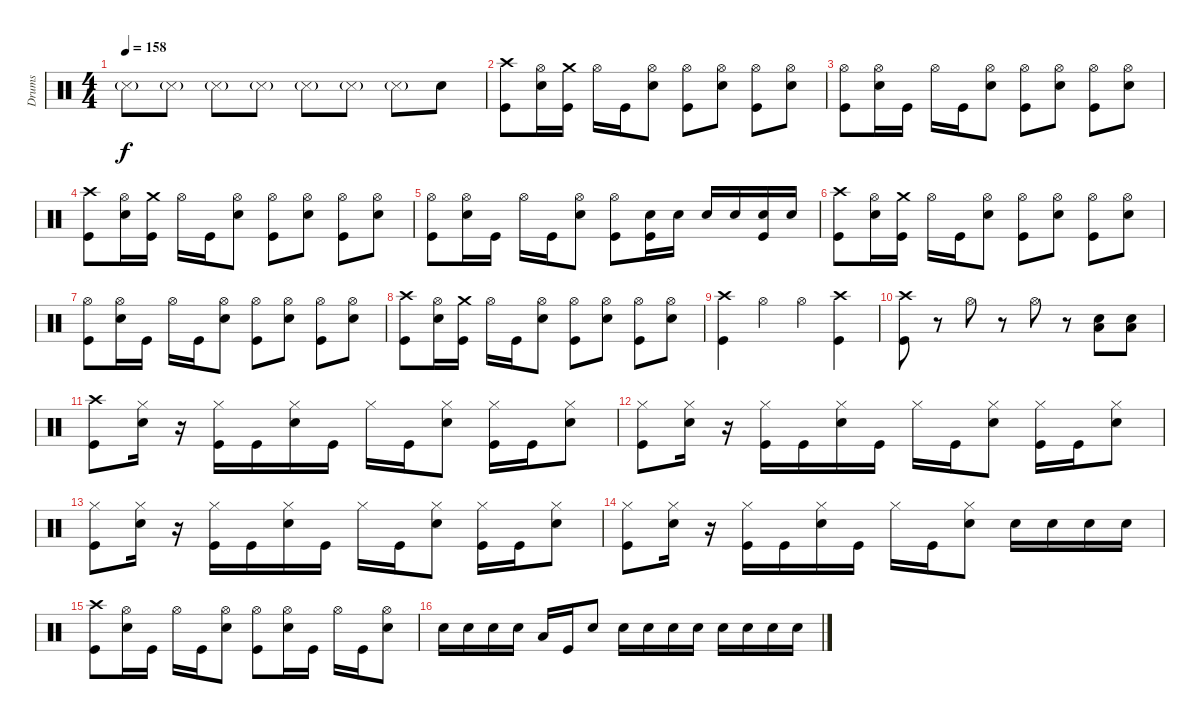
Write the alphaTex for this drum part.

\track ("Drums" "Drums") {instrument percussion}
\staff {score}
\articulation defaults
\ts (4 4)
\tempo 158
\clef neutral
\ks c "Snare (side stick) 3"{g}.8{dy f} "Snare (side stick) 3"{g}.8 "Snare (side stick) 3"{g}.8 "Snare (side stick) 3"{g}.8 "Snare (side stick) 3"{g}.8 "Snare (side stick) 3"{g}.8 "Snare (side stick) 3"{g}.8 "Snare (hit) 2".8
|
("Crash high (hit)" "Kick (hit)").8 ("Hi-Hat (open)" "Snare (hit) 2").16 ("Crash medium (hit)" "Kick (hit)").16 "Hi-Hat (open)".16 "Kick (hit)".16 ("Hi-Hat (open)" "Snare (hit) 2").8 ("Hi-Hat (open)" "Kick (hit)").8 ("Hi-Hat (open)" "Snare (hit) 2").8 ("Hi-Hat (open)" "Kick (hit)").8 ("Hi-Hat (open)" "Snare (hit) 2").8 |
("Hi-Hat (open)" "Kick (hit)").8 ("Hi-Hat (open)" "Snare (hit) 2").16 "Kick (hit)".16 "Hi-Hat (open)".16 "Kick (hit)".16 ("Hi-Hat (open)" "Snare (hit) 2").8 ("Hi-Hat (open)" "Kick (hit)").8 ("Hi-Hat (open)" "Snare (hit) 2").8 ("Hi-Hat (open)" "Kick (hit)").8 ("Hi-Hat (open)" "Snare (hit) 2").8 |
("Crash high (hit)" "Kick (hit)").8 ("Hi-Hat (open)" "Snare (hit) 2").16 ("Crash medium (hit)" "Kick (hit)").16 "Hi-Hat (open)".16 "Kick (hit)".16 ("Hi-Hat (open)" "Snare (hit) 2").8 ("Hi-Hat (open)" "Kick (hit)").8 ("Hi-Hat (open)" "Snare (hit) 2").8 ("Hi-Hat (open)" "Kick (hit)").8 ("Hi-Hat (open)" "Snare (hit) 2").8 |
("Hi-Hat (open)" "Kick (hit)").8 ("Hi-Hat (open)" "Snare (hit) 2").16 "Kick (hit)".16 "Hi-Hat (open)".16 "Kick (hit)".16 ("Hi-Hat (open)" "Snare (hit) 2").8 ("Hi-Hat (open)" "Kick (hit)").8 ("Kick (hit)" "Snare (hit) 2").16 "Snare (hit) 2".16 "Snare (hit) 2".16 "Snare (hit) 2".16 ("Kick (hit)" "Snare (hit) 2").16 "Snare (hit) 2".16 |
("Crash high (hit)" "Kick (hit)").8 ("Hi-Hat (open)" "Snare (hit) 2").16 ("Crash medium (hit)" "Kick (hit)").16 "Hi-Hat (open)".16 "Kick (hit)".16 ("Hi-Hat (open)" "Snare (hit) 2").8 ("Hi-Hat (open)" "Kick (hit)").8 ("Hi-Hat (open)" "Snare (hit) 2").8 ("Hi-Hat (open)" "Kick (hit)").8 ("Hi-Hat (open)" "Snare (hit) 2").8 |
("Hi-Hat (open)" "Kick (hit)").8 ("Hi-Hat (open)" "Snare (hit) 2").16 "Kick (hit)".16 "Hi-Hat (open)".16 "Kick (hit)".16 ("Hi-Hat (open)" "Snare (hit) 2").8 ("Hi-Hat (open)" "Kick (hit)").8 ("Hi-Hat (open)" "Snare (hit) 2").8 ("Hi-Hat (open)" "Kick (hit)").8 ("Hi-Hat (open)" "Snare (hit) 2").8 |
("Crash high (hit)" "Kick (hit)").8 ("Hi-Hat (open)" "Snare (hit) 2").16 ("Crash medium (hit)" "Kick (hit)").16 "Hi-Hat (open)".16 "Kick (hit)".16 ("Hi-Hat (open)" "Snare (hit) 2").8 ("Hi-Hat (open)" "Kick (hit)").8 ("Hi-Hat (open)" "Snare (hit) 2").8 ("Hi-Hat (open)" "Kick (hit)").8 ("Hi-Hat (open)" "Snare (hit) 2").8 |
("Crash high (hit)" "Kick (hit)").4 "Hi-Hat (open)".4 "Hi-Hat (open)".4 ("Crash high (hit)" "Kick (hit)").4 |
("Crash high (hit)" "Kick (hit)").8 r.8 "Hi-Hat (open)".8 r.8 "Hi-Hat (open)".8 r.8 ("Snare (hit) 2" "Low Tom (hit)").8 ("Snare (hit) 2" "Low Tom (hit)").8 |
("Crash high (hit)" "Kick (hit)").8 ("Hi-Hat (closed)" "Snare (hit) 2").16 r.16 ("Hi-Hat (closed)" "Kick (hit)").16 "Kick (hit)".16 ("Hi-Hat (closed)" "Snare (hit) 2").16 "Kick (hit)".16 "Hi-Hat (closed)".16 "Kick (hit)".16 ("Hi-Hat (closed)" "Snare (hit) 2").8 ("Hi-Hat (closed)" "Kick (hit)").16 "Kick (hit)".16 ("Hi-Hat (closed)" "Snare (hit) 2").8 |
("Hi-Hat (closed)" "Kick (hit)").8 ("Hi-Hat (closed)" "Snare (hit) 2").16 r.16 ("Hi-Hat (closed)" "Kick (hit)").16 "Kick (hit)".16 ("Hi-Hat (closed)" "Snare (hit) 2").16 "Kick (hit)".16 "Hi-Hat (closed)".16 "Kick (hit)".16 ("Hi-Hat (closed)" "Snare (hit) 2").8 ("Hi-Hat (closed)" "Kick (hit)").16 "Kick (hit)".16 ("Hi-Hat (closed)" "Snare (hit) 2").8 |
("Hi-Hat (closed)" "Kick (hit)").8 ("Hi-Hat (closed)" "Snare (hit) 2").16 r.16 ("Hi-Hat (closed)" "Kick (hit)").16 "Kick (hit)".16 ("Hi-Hat (closed)" "Snare (hit) 2").16 "Kick (hit)".16 "Hi-Hat (closed)".16 "Kick (hit)".16 ("Hi-Hat (closed)" "Snare (hit) 2").8 ("Hi-Hat (closed)" "Kick (hit)").16 "Kick (hit)".16 ("Hi-Hat (closed)" "Snare (hit) 2").8 |
("Hi-Hat (closed)" "Kick (hit)").8 ("Hi-Hat (closed)" "Snare (hit) 2").16 r.16 ("Hi-Hat (closed)" "Kick (hit)").16 "Kick (hit)".16 ("Hi-Hat (closed)" "Snare (hit) 2").16 "Kick (hit)".16 "Hi-Hat (closed)".16 "Kick (hit)".16 ("Hi-Hat (closed)" "Snare (hit) 2").8 "Snare (hit) 2".16 "Snare (hit) 2".16 "Snare (hit) 2".16 "Snare (hit) 2".16 |
("Crash high (hit)" "Kick (hit)").8 ("Hi-Hat (open)" "Snare (hit) 2").16 "Kick (hit)".16 "Hi-Hat (open)".16 "Kick (hit)".16 ("Hi-Hat (open)" "Snare (hit) 2").8 ("Hi-Hat (open)" "Kick (hit)").8 ("Hi-Hat (open)" "Snare (hit) 2").16 "Kick (hit)".16 "Hi-Hat (open)".16 "Kick (hit)".16 ("Hi-Hat (open)" "Snare (hit) 2").8 |
"Snare (hit) 2".16 "Snare (hit) 2".16 "Snare (hit) 2".16 "Snare (hit) 2".16 "Low Tom (hit)".16 "Kick (hit)".16 "Snare (hit) 2".8 "Snare (hit) 2".16 "Snare (hit) 2".16 "Snare (hit) 2".16 "Snare (hit) 2".16 "Snare (hit) 2".16 "Snare (hit) 2".16 "Snare (hit) 2".16 "Snare (hit) 2".16
